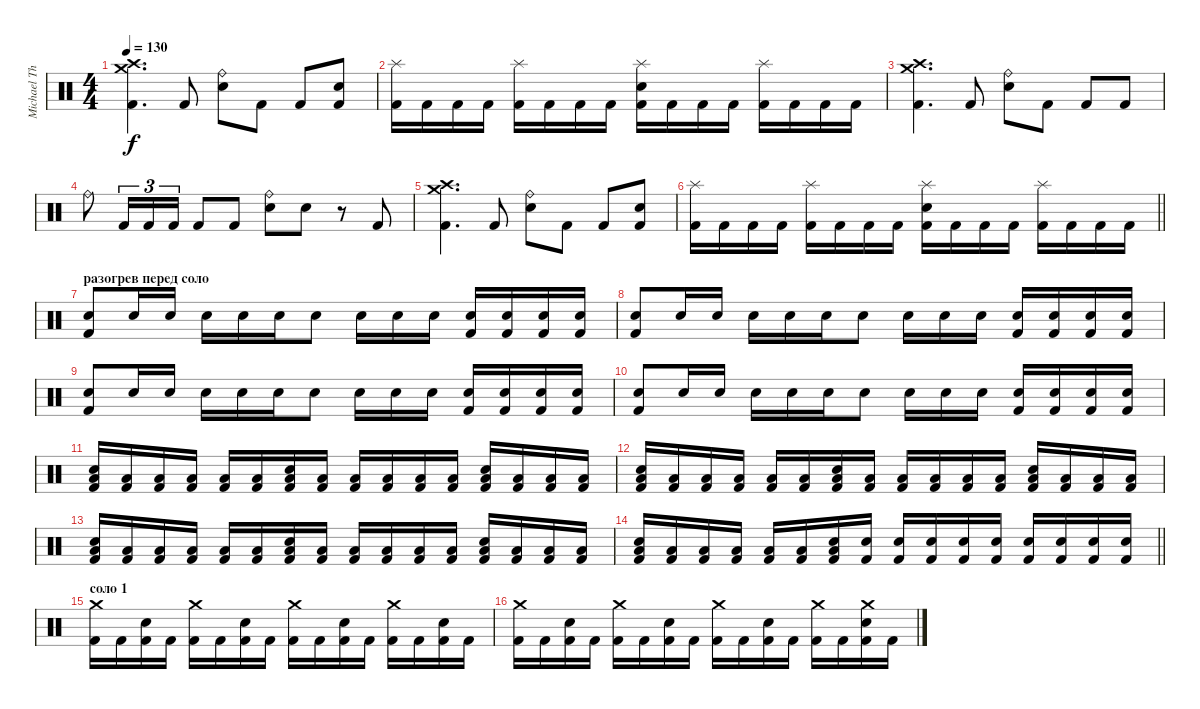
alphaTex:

\track ("Michael Thomas" "Michael Th") {instrument percussion}
\staff {score}
\articulation defaults
\ts (4 4)
\tempo 130
\clef neutral
\ks c
("Crash high (hit)" "Crash medium (hit)" "Kick (hit) 2").4{d dy f} "Kick (hit) 2".8 ("Ride (bell)" "Electric Snare (hit)").8 "Kick (hit) 2".8 "Kick (hit) 2".8 ("Electric Snare (hit)" "Kick (hit) 2").8 |
("Splash (hit)" "Kick (hit) 2").16 "Kick (hit) 2".16 "Kick (hit) 2".16 "Kick (hit) 2".16 ("Splash (hit)" "Kick (hit) 2").16 "Kick (hit) 2".16 "Kick (hit) 2".16 "Kick (hit) 2".16 ("Splash (hit)" "Electric Snare (hit)" "Kick (hit) 2").16 "Kick (hit) 2".16 "Kick (hit) 2".16 "Kick (hit) 2".16 ("Splash (hit)" "Kick (hit) 2").16 "Kick (hit) 2".16 "Kick (hit) 2".16 "Kick (hit) 2".16 |
("Crash medium (hit)" "Crash high (hit)" "Kick (hit) 2").4{d} "Kick (hit) 2".8 ("Ride (bell)" "Electric Snare (hit)").8 "Kick (hit) 2".8 "Kick (hit) 2".8 "Kick (hit) 2".8 |
"Ride (bell)".8 "Kick (hit) 2".16{tu (3 2)} "Kick (hit) 2".16{tu (3 2)} "Kick (hit) 2".16{tu (3 2)} "Kick (hit) 2".8 "Kick (hit) 2".8 ("Ride (bell)" "Electric Snare (hit)").8 "Electric Snare (hit)".8 r.8 "Kick (hit) 2".8 |
("Crash high (hit)" "Crash medium (hit)" "Kick (hit) 2").4{d} "Kick (hit) 2".8 ("Ride (bell)" "Electric Snare (hit)").8 "Kick (hit) 2".8 "Kick (hit) 2".8 ("Electric Snare (hit)" "Kick (hit) 2").8 |
\barLineRight lightlight
("Splash (hit)" "Kick (hit) 2").16 "Kick (hit) 2".16 "Kick (hit) 2".16 "Kick (hit) 2".16 ("Splash (hit)" "Kick (hit) 2").16 "Kick (hit) 2".16 "Kick (hit) 2".16 "Kick (hit) 2".16 ("Splash (hit)" "Electric Snare (hit)" "Kick (hit) 2").16 "Kick (hit) 2".16 "Kick (hit) 2".16 "Kick (hit) 2".16 ("Splash (hit)" "Kick (hit) 2").16 "Kick (hit) 2".16 "Kick (hit) 2".16 "Kick (hit) 2".16 |
\section ("" "разогрев перед соло")
("Electric Snare (hit)" "Kick (hit) 2").8 "Electric Snare (hit)".16 "Electric Snare (hit)".16 "Electric Snare (hit)".16 "Electric Snare (hit)".16 "Electric Snare (hit)".16 "Electric Snare (hit)".8 "Electric Snare (hit)".16 "Electric Snare (hit)".16 "Electric Snare (hit)".16 ("Electric Snare (hit)" "Kick (hit) 2").16 ("Electric Snare (hit)" "Kick (hit) 2").16 ("Electric Snare (hit)" "Kick (hit) 2").16 ("Electric Snare (hit)" "Kick (hit) 2").16 |
("Electric Snare (hit)" "Kick (hit) 2").8 "Electric Snare (hit)".16 "Electric Snare (hit)".16 "Electric Snare (hit)".16 "Electric Snare (hit)".16 "Electric Snare (hit)".16 "Electric Snare (hit)".8 "Electric Snare (hit)".16 "Electric Snare (hit)".16 "Electric Snare (hit)".16 ("Electric Snare (hit)" "Kick (hit) 2").16 ("Electric Snare (hit)" "Kick (hit) 2").16 ("Electric Snare (hit)" "Kick (hit) 2").16 ("Electric Snare (hit)" "Kick (hit) 2").16 |
("Electric Snare (hit)" "Kick (hit) 2").8 "Electric Snare (hit)".16 "Electric Snare (hit)".16 "Electric Snare (hit)".16 "Electric Snare (hit)".16 "Electric Snare (hit)".16 "Electric Snare (hit)".8 "Electric Snare (hit)".16 "Electric Snare (hit)".16 "Electric Snare (hit)".16 ("Electric Snare (hit)" "Kick (hit) 2").16 ("Electric Snare (hit)" "Kick (hit) 2").16 ("Electric Snare (hit)" "Kick (hit) 2").16 ("Electric Snare (hit)" "Kick (hit) 2").16 |
("Electric Snare (hit)" "Kick (hit) 2").8 "Electric Snare (hit)".16 "Electric Snare (hit)".16 "Electric Snare (hit)".16 "Electric Snare (hit)".16 "Electric Snare (hit)".16 "Electric Snare (hit)".8 "Electric Snare (hit)".16 "Electric Snare (hit)".16 "Electric Snare (hit)".16 ("Electric Snare (hit)" "Kick (hit) 2").16 ("Electric Snare (hit)" "Kick (hit) 2").16 ("Electric Snare (hit)" "Kick (hit) 2").16 ("Electric Snare (hit)" "Kick (hit) 2").16 |
("Low Tom (hit)" "Electric Snare (hit)" "Kick (hit) 2").16 ("Low Tom (hit)" "Kick (hit) 2").16 ("Low Tom (hit)" "Kick (hit) 2").16 ("Low Tom (hit)" "Kick (hit) 2").16 ("Low Tom (hit)" "Kick (hit) 2").16 ("Low Tom (hit)" "Kick (hit) 2").16 ("Low Tom (hit)" "Electric Snare (hit)" "Kick (hit) 2").16 ("Low Tom (hit)" "Kick (hit) 2").16 ("Low Tom (hit)" "Kick (hit) 2").16 ("Low Tom (hit)" "Kick (hit) 2").16 ("Low Tom (hit)" "Kick (hit) 2").16 ("Low Tom (hit)" "Kick (hit) 2").16 ("Low Tom (hit)" "Electric Snare (hit)" "Kick (hit) 2").16 ("Low Tom (hit)" "Kick (hit) 2").16 ("Low Tom (hit)" "Kick (hit) 2").16 ("Low Tom (hit)" "Kick (hit) 2").16 |
("Low Tom (hit)" "Electric Snare (hit)" "Kick (hit) 2").16 ("Low Tom (hit)" "Kick (hit) 2").16 ("Low Tom (hit)" "Kick (hit) 2").16 ("Low Tom (hit)" "Kick (hit) 2").16 ("Low Tom (hit)" "Kick (hit) 2").16 ("Low Tom (hit)" "Kick (hit) 2").16 ("Low Tom (hit)" "Electric Snare (hit)" "Kick (hit) 2").16 ("Low Tom (hit)" "Kick (hit) 2").16 ("Low Tom (hit)" "Kick (hit) 2").16 ("Low Tom (hit)" "Kick (hit) 2").16 ("Low Tom (hit)" "Kick (hit) 2").16 ("Low Tom (hit)" "Kick (hit) 2").16 ("Low Tom (hit)" "Electric Snare (hit)" "Kick (hit) 2").16 ("Low Tom (hit)" "Kick (hit) 2").16 ("Low Tom (hit)" "Kick (hit) 2").16 ("Low Tom (hit)" "Kick (hit) 2").16 |
("Low Tom (hit)" "Electric Snare (hit)" "Kick (hit) 2").16 ("Low Tom (hit)" "Kick (hit) 2").16 ("Low Tom (hit)" "Kick (hit) 2").16 ("Low Tom (hit)" "Kick (hit) 2").16 ("Low Tom (hit)" "Kick (hit) 2").16 ("Low Tom (hit)" "Kick (hit) 2").16 ("Low Tom (hit)" "Electric Snare (hit)" "Kick (hit) 2").16 ("Low Tom (hit)" "Kick (hit) 2").16 ("Low Tom (hit)" "Kick (hit) 2").16 ("Low Tom (hit)" "Kick (hit) 2").16 ("Low Tom (hit)" "Kick (hit) 2").16 ("Low Tom (hit)" "Kick (hit) 2").16 ("Low Tom (hit)" "Electric Snare (hit)" "Kick (hit) 2").16 ("Low Tom (hit)" "Kick (hit) 2").16 ("Low Tom (hit)" "Kick (hit) 2").16 ("Low Tom (hit)" "Kick (hit) 2").16 |
\barLineRight lightlight
("Low Tom (hit)" "Electric Snare (hit)" "Kick (hit) 2").16 ("Low Tom (hit)" "Kick (hit) 2").16 ("Low Tom (hit)" "Kick (hit) 2").16 ("Low Tom (hit)" "Kick (hit) 2").16 ("Low Tom (hit)" "Kick (hit) 2").16 ("Low Tom (hit)" "Kick (hit) 2").16 ("Low Tom (hit)" "Electric Snare (hit)" "Kick (hit) 2").16 ("Electric Snare (hit)" "Kick (hit) 2").16 ("Electric Snare (hit)" "Kick (hit) 2").16 ("Electric Snare (hit)" "Kick (hit) 2").16 ("Electric Snare (hit)" "Kick (hit) 2").16 ("Electric Snare (hit)" "Kick (hit) 2").16 ("Electric Snare (hit)" "Kick (hit) 2").16 ("Electric Snare (hit)" "Kick (hit) 2").16 ("Electric Snare (hit)" "Kick (hit) 2").16 ("Electric Snare (hit)" "Kick (hit) 2").16 |
\section ("" "соло 1")
("Crash medium (hit)" "Kick (hit) 2").16 "Kick (hit) 2".16 ("Electric Snare (hit)" "Kick (hit) 2").16 "Kick (hit) 2".16 ("Crash medium (hit)" "Kick (hit) 2").16 "Kick (hit) 2".16 ("Electric Snare (hit)" "Kick (hit) 2").16 "Kick (hit) 2".16 ("Crash medium (hit)" "Kick (hit) 2").16 "Kick (hit) 2".16 ("Electric Snare (hit)" "Kick (hit) 2").16 "Kick (hit) 2".16 ("Crash medium (hit)" "Kick (hit) 2").16 "Kick (hit) 2".16 ("Electric Snare (hit)" "Kick (hit) 2").16 "Kick (hit) 2".16 |
("Crash medium (hit)" "Kick (hit) 2").16 "Kick (hit) 2".16 ("Electric Snare (hit)" "Kick (hit) 2").16 "Kick (hit) 2".16 ("Crash medium (hit)" "Kick (hit) 2").16 "Kick (hit) 2".16 ("Electric Snare (hit)" "Kick (hit) 2").16 "Kick (hit) 2".16 ("Crash medium (hit)" "Kick (hit) 2").16 "Kick (hit) 2".16 ("Electric Snare (hit)" "Kick (hit) 2").16 "Kick (hit) 2".16 ("Crash medium (hit)" "Kick (hit) 2").16 "Kick (hit) 2".16 ("Crash medium (hit)" "Electric Snare (hit)" "Kick (hit) 2").16 "Kick (hit) 2".16
